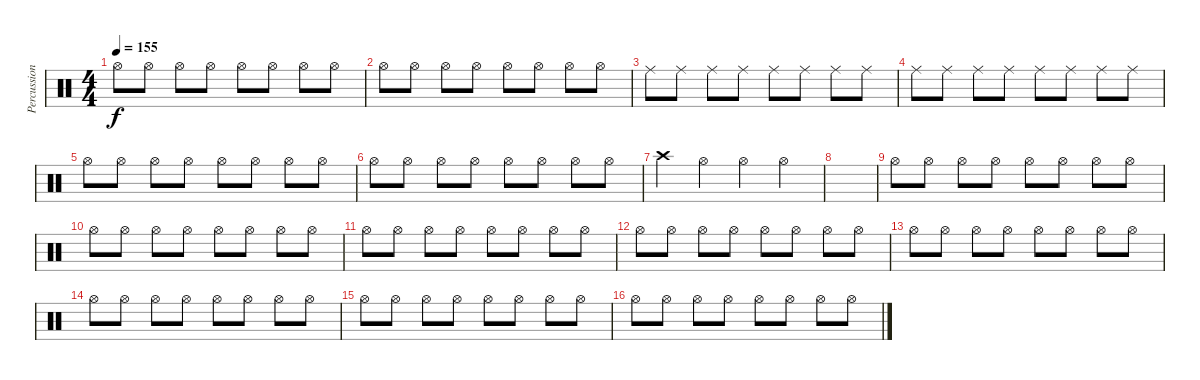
\track ("Percussion 2" "Percussion") {instrument percussion}
\staff {score}
\articulation defaults
\ts (4 4)
\tempo 155
\clef neutral
\ks c "Hi-Hat (open)".8{dy f} "Hi-Hat (open)".8 "Hi-Hat (open)".8 "Hi-Hat (open)".8 "Hi-Hat (open)".8 "Hi-Hat (open)".8 "Hi-Hat (open)".8 "Hi-Hat (open)".8
|
"Hi-Hat (open)".8 "Hi-Hat (open)".8 "Hi-Hat (open)".8 "Hi-Hat (open)".8 "Hi-Hat (open)".8 "Hi-Hat (open)".8 "Hi-Hat (open)".8 "Hi-Hat (open)".8 |
"Ride (middle)".8 "Ride (middle)".8 "Ride (middle)".8 "Ride (middle)".8 "Ride (middle)".8 "Ride (middle)".8 "Ride (middle)".8 "Ride (middle)".8 |
"Ride (middle)".8 "Ride (middle)".8 "Ride (middle)".8 "Ride (middle)".8 "Ride (middle)".8 "Ride (middle)".8 "Ride (middle)".8 "Ride (middle)".8 |
"Hi-Hat (open)".8 "Hi-Hat (open)".8 "Hi-Hat (open)".8 "Hi-Hat (open)".8 "Hi-Hat (open)".8 "Hi-Hat (open)".8 "Hi-Hat (open)".8 "Hi-Hat (open)".8 |
"Hi-Hat (open)".8 "Hi-Hat (open)".8 "Hi-Hat (open)".8 "Hi-Hat (open)".8 "Hi-Hat (open)".8 "Hi-Hat (open)".8 "Hi-Hat (open)".8 "Hi-Hat (open)".8 |
"Crash high (hit)".4 "Hi-Hat (open)".4 "Hi-Hat (open)".4 "Hi-Hat (open)".4 |
|
"Hi-Hat (open)".8 "Hi-Hat (open)".8 "Hi-Hat (open)".8 "Hi-Hat (open)".8 "Hi-Hat (open)".8 "Hi-Hat (open)".8 "Hi-Hat (open)".8 "Hi-Hat (open)".8 |
"Hi-Hat (open)".8 "Hi-Hat (open)".8 "Hi-Hat (open)".8 "Hi-Hat (open)".8 "Hi-Hat (open)".8 "Hi-Hat (open)".8 "Hi-Hat (open)".8 "Hi-Hat (open)".8 |
"Hi-Hat (open)".8 "Hi-Hat (open)".8 "Hi-Hat (open)".8 "Hi-Hat (open)".8 "Hi-Hat (open)".8 "Hi-Hat (open)".8 "Hi-Hat (open)".8 "Hi-Hat (open)".8 |
"Hi-Hat (open)".8 "Hi-Hat (open)".8 "Hi-Hat (open)".8 "Hi-Hat (open)".8 "Hi-Hat (open)".8 "Hi-Hat (open)".8 "Hi-Hat (open)".8 "Hi-Hat (open)".8 |
"Hi-Hat (open)".8 "Hi-Hat (open)".8 "Hi-Hat (open)".8 "Hi-Hat (open)".8 "Hi-Hat (open)".8 "Hi-Hat (open)".8 "Hi-Hat (open)".8 "Hi-Hat (open)".8 |
"Hi-Hat (open)".8 "Hi-Hat (open)".8 "Hi-Hat (open)".8 "Hi-Hat (open)".8 "Hi-Hat (open)".8 "Hi-Hat (open)".8 "Hi-Hat (open)".8 "Hi-Hat (open)".8 |
"Hi-Hat (open)".8 "Hi-Hat (open)".8 "Hi-Hat (open)".8 "Hi-Hat (open)".8 "Hi-Hat (open)".8 "Hi-Hat (open)".8 "Hi-Hat (open)".8 "Hi-Hat (open)".8 |
"Hi-Hat (open)".8 "Hi-Hat (open)".8 "Hi-Hat (open)".8 "Hi-Hat (open)".8 "Hi-Hat (open)".8 "Hi-Hat (open)".8 "Hi-Hat (open)".8 "Hi-Hat (open)".8
